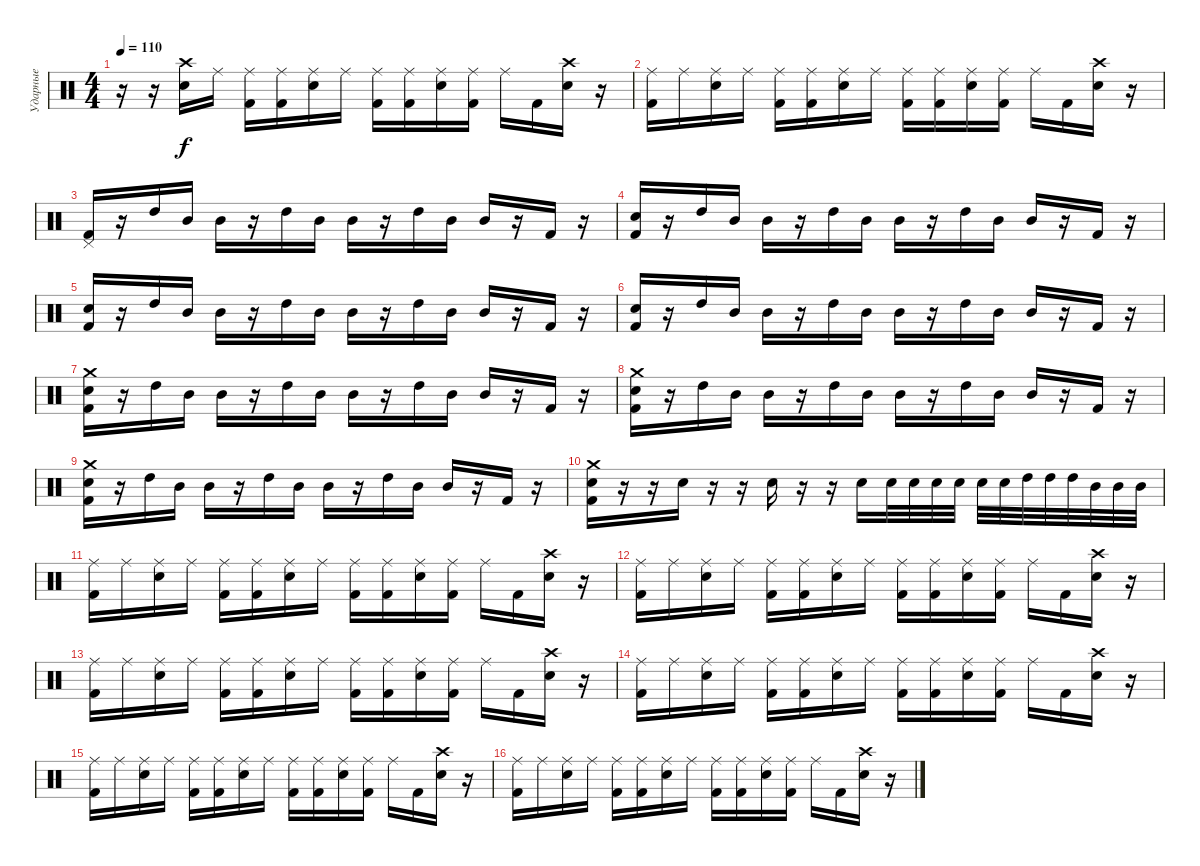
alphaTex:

\track ("Ударные" "Ударные") {instrument percussion}
\staff {score}
\articulation defaults
\ts (4 4)
\tempo 110
\clef neutral
\ks c
r.16{dy f} r.16 ("Electric Snare (hit)" "Crash high (hit)").16 "Ride (middle)".16 ("Kick (hit) 2" "Ride (middle)").16 ("Kick (hit) 2" "Ride (middle)").16 ("Electric Snare (hit)" "Ride (middle)").16 "Ride (middle)".16 ("Kick (hit) 2" "Ride (middle)").16 ("Kick (hit) 2" "Ride (middle)").16 ("Electric Snare (hit)" "Ride (middle)").16 ("Kick (hit) 2" "Ride (middle)").16 "Ride (middle)".16 "Kick (hit) 2".16 ("Electric Snare (hit)" "Crash high (hit)").16 r.16 |
("Kick (hit) 2" "Ride (middle)").16 "Ride (middle)".16 ("Electric Snare (hit)" "Ride (middle)").16 "Ride (middle)".16 ("Kick (hit) 2" "Ride (middle)").16 ("Kick (hit) 2" "Ride (middle)").16 ("Electric Snare (hit)" "Ride (middle)").16 "Ride (middle)".16 ("Kick (hit) 2" "Ride (middle)").16 ("Kick (hit) 2" "Ride (middle)").16 ("Electric Snare (hit)" "Ride (middle)").16 ("Kick (hit) 2" "Ride (middle)").16 "Ride (middle)".16 "Kick (hit) 2".16 ("Electric Snare (hit)" "Crash high (hit)").16 r.16 |
("Kick (hit) 2" "Pedal Hi-Hat (hit)").16 r.16 "High Tom (hit)".16 "Mid Tom (hit)".16 "Mid Tom (hit)".16 r.16 "High Tom (hit)".16 "Mid Tom (hit)".16 "Mid Tom (hit)".16 r.16 "High Tom (hit)".16 "Mid Tom (hit)".16 "Mid Tom (hit)".16 r.16 "Kick (hit) 2".16 r.16 |
("Kick (hit) 2" "Electric Snare (hit)").16 r.16 "High Tom (hit)".16 "Mid Tom (hit)".16 "Mid Tom (hit)".16 r.16 "High Tom (hit)".16 "Mid Tom (hit)".16 "Mid Tom (hit)".16 r.16 "High Tom (hit)".16 "Mid Tom (hit)".16 "Mid Tom (hit)".16 r.16 "Kick (hit) 2".16 r.16 |
("Kick (hit) 2" "Electric Snare (hit)").16 r.16 "High Tom (hit)".16 "Mid Tom (hit)".16 "Mid Tom (hit)".16 r.16 "High Tom (hit)".16 "Mid Tom (hit)".16 "Mid Tom (hit)".16 r.16 "High Tom (hit)".16 "Mid Tom (hit)".16 "Mid Tom (hit)".16 r.16 "Kick (hit) 2".16 r.16 |
("Kick (hit) 2" "Electric Snare (hit)").16 r.16 "High Tom (hit)".16 "Mid Tom (hit)".16 "Mid Tom (hit)".16 r.16 "High Tom (hit)".16 "Mid Tom (hit)".16 "Mid Tom (hit)".16 r.16 "High Tom (hit)".16 "Mid Tom (hit)".16 "Mid Tom (hit)".16 r.16 "Kick (hit) 2".16 r.16 |
("Kick (hit) 2" "Electric Snare (hit)" "Crash medium (hit)").16 r.16 "High Tom (hit)".16 "Mid Tom (hit)".16 "Mid Tom (hit)".16 r.16 "High Tom (hit)".16 "Mid Tom (hit)".16 "Mid Tom (hit)".16 r.16 "High Tom (hit)".16 "Mid Tom (hit)".16 "Mid Tom (hit)".16 r.16 "Kick (hit) 2".16 r.16 |
("Kick (hit) 2" "Electric Snare (hit)" "Crash medium (hit)").16 r.16 "High Tom (hit)".16 "Mid Tom (hit)".16 "Mid Tom (hit)".16 r.16 "High Tom (hit)".16 "Mid Tom (hit)".16 "Mid Tom (hit)".16 r.16 "High Tom (hit)".16 "Mid Tom (hit)".16 "Mid Tom (hit)".16 r.16 "Kick (hit) 2".16 r.16 |
("Kick (hit) 2" "Electric Snare (hit)" "Crash medium (hit)").16 r.16 "High Tom (hit)".16 "Mid Tom (hit)".16 "Mid Tom (hit)".16 r.16 "High Tom (hit)".16 "Mid Tom (hit)".16 "Mid Tom (hit)".16 r.16 "High Tom (hit)".16 "Mid Tom (hit)".16 "Mid Tom (hit)".16 r.16 "Kick (hit) 2".16 r.16 |
("Kick (hit) 2" "Electric Snare (hit)" "Crash medium (hit)").16 r.16 r.16 "Electric Snare (hit)".16 r.16 r.16 "Electric Snare (hit)".16 r.16 r.16 "Electric Snare (hit)".16 "Electric Snare (hit)".32 "Electric Snare (hit)".32 "Electric Snare (hit)".32 "Electric Snare (hit)".32 "Electric Snare (hit)".32 "Electric Snare (hit)".32 "High Tom (hit)".32 "High Tom (hit)".32 "High Tom (hit)".32 "Mid Tom (hit)".32 "Mid Tom (hit)".32 "Mid Tom (hit)".32 |
("Kick (hit) 2" "Ride (middle)").16 "Ride (middle)".16 ("Electric Snare (hit)" "Ride (middle)").16 "Ride (middle)".16 ("Kick (hit) 2" "Ride (middle)").16 ("Kick (hit) 2" "Ride (middle)").16 ("Electric Snare (hit)" "Ride (middle)").16 "Ride (middle)".16 ("Kick (hit) 2" "Ride (middle)").16 ("Kick (hit) 2" "Ride (middle)").16 ("Electric Snare (hit)" "Ride (middle)").16 ("Kick (hit) 2" "Ride (middle)").16 "Ride (middle)".16 "Kick (hit) 2".16 ("Electric Snare (hit)" "Crash high (hit)").16 r.16 |
("Kick (hit) 2" "Ride (middle)").16 "Ride (middle)".16 ("Electric Snare (hit)" "Ride (middle)").16 "Ride (middle)".16 ("Kick (hit) 2" "Ride (middle)").16 ("Kick (hit) 2" "Ride (middle)").16 ("Electric Snare (hit)" "Ride (middle)").16 "Ride (middle)".16 ("Kick (hit) 2" "Ride (middle)").16 ("Kick (hit) 2" "Ride (middle)").16 ("Electric Snare (hit)" "Ride (middle)").16 ("Kick (hit) 2" "Ride (middle)").16 "Ride (middle)".16 "Kick (hit) 2".16 ("Electric Snare (hit)" "Crash high (hit)").16 r.16 |
("Kick (hit) 2" "Ride (middle)").16 "Ride (middle)".16 ("Electric Snare (hit)" "Ride (middle)").16 "Ride (middle)".16 ("Kick (hit) 2" "Ride (middle)").16 ("Kick (hit) 2" "Ride (middle)").16 ("Electric Snare (hit)" "Ride (middle)").16 "Ride (middle)".16 ("Kick (hit) 2" "Ride (middle)").16 ("Kick (hit) 2" "Ride (middle)").16 ("Electric Snare (hit)" "Ride (middle)").16 ("Kick (hit) 2" "Ride (middle)").16 "Ride (middle)".16 "Kick (hit) 2".16 ("Electric Snare (hit)" "Crash high (hit)").16 r.16 |
("Kick (hit) 2" "Ride (middle)").16 "Ride (middle)".16 ("Electric Snare (hit)" "Ride (middle)").16 "Ride (middle)".16 ("Kick (hit) 2" "Ride (middle)").16 ("Kick (hit) 2" "Ride (middle)").16 ("Electric Snare (hit)" "Ride (middle)").16 "Ride (middle)".16 ("Kick (hit) 2" "Ride (middle)").16 ("Kick (hit) 2" "Ride (middle)").16 ("Electric Snare (hit)" "Ride (middle)").16 ("Kick (hit) 2" "Ride (middle)").16 "Ride (middle)".16 "Kick (hit) 2".16 ("Electric Snare (hit)" "Crash high (hit)").16 r.16 |
("Kick (hit) 2" "Ride (middle)").16 "Ride (middle)".16 ("Electric Snare (hit)" "Ride (middle)").16 "Ride (middle)".16 ("Kick (hit) 2" "Ride (middle)").16 ("Kick (hit) 2" "Ride (middle)").16 ("Electric Snare (hit)" "Ride (middle)").16 "Ride (middle)".16 ("Kick (hit) 2" "Ride (middle)").16 ("Kick (hit) 2" "Ride (middle)").16 ("Electric Snare (hit)" "Ride (middle)").16 ("Kick (hit) 2" "Ride (middle)").16 "Ride (middle)".16 "Kick (hit) 2".16 ("Electric Snare (hit)" "Crash high (hit)").16 r.16 |
("Kick (hit) 2" "Ride (middle)").16 "Ride (middle)".16 ("Electric Snare (hit)" "Ride (middle)").16 "Ride (middle)".16 ("Kick (hit) 2" "Ride (middle)").16 ("Kick (hit) 2" "Ride (middle)").16 ("Electric Snare (hit)" "Ride (middle)").16 "Ride (middle)".16 ("Kick (hit) 2" "Ride (middle)").16 ("Kick (hit) 2" "Ride (middle)").16 ("Electric Snare (hit)" "Ride (middle)").16 ("Kick (hit) 2" "Ride (middle)").16 "Ride (middle)".16 "Kick (hit) 2".16 ("Electric Snare (hit)" "Crash high (hit)").16 r.16
